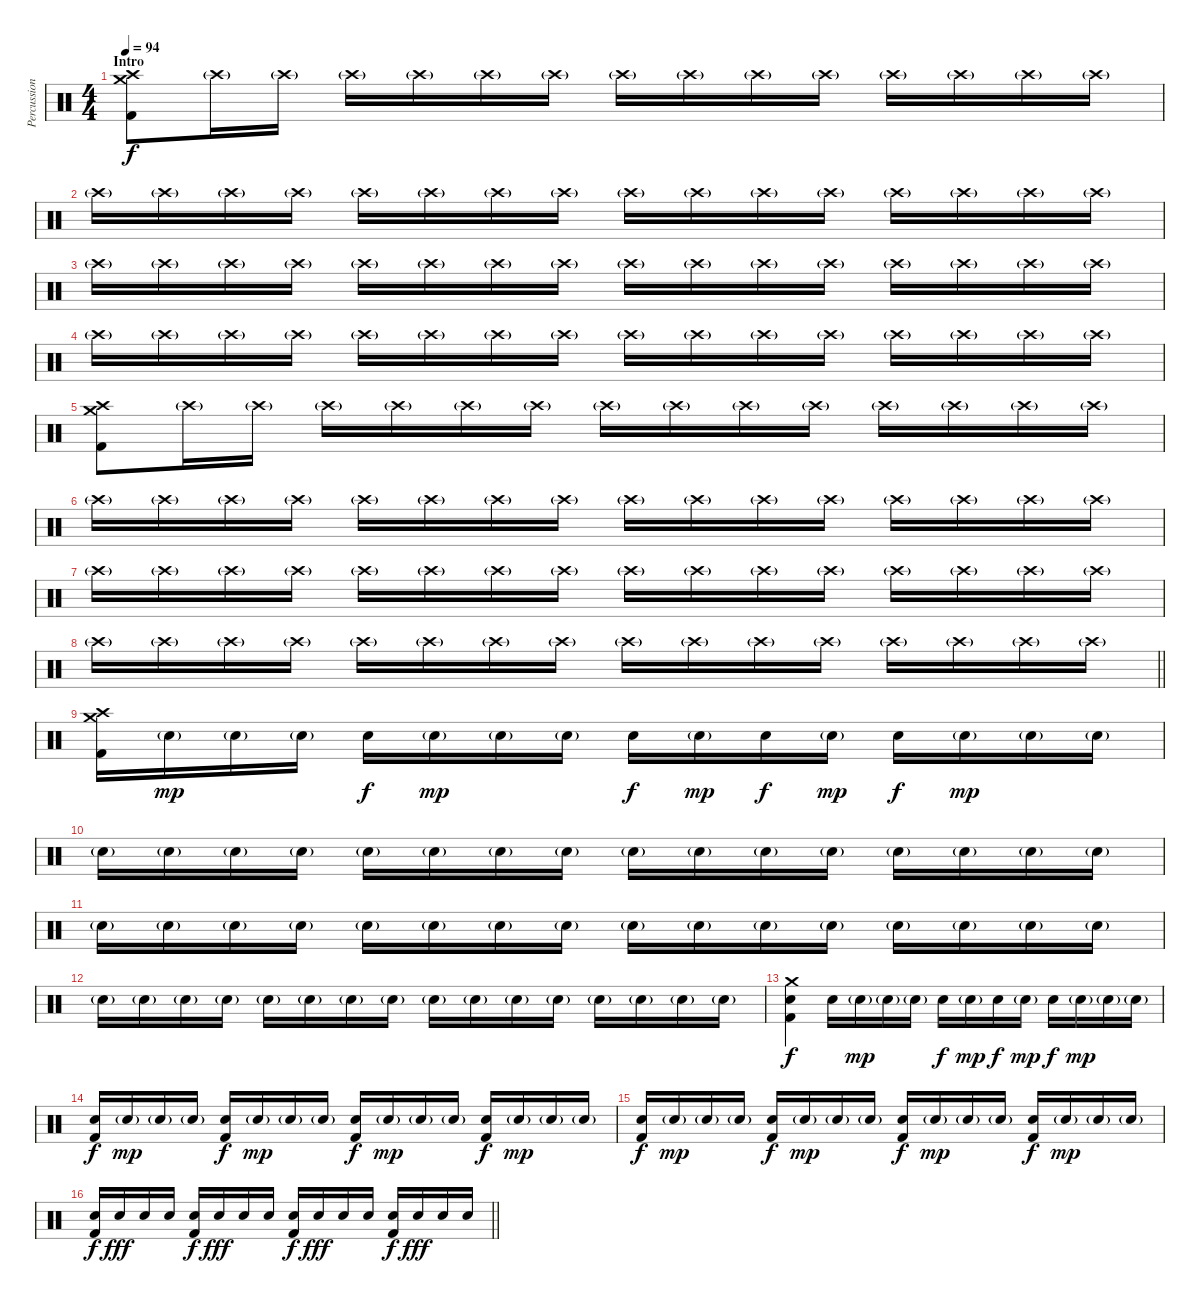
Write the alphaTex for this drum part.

\track ("Percussion" "Percussion") {instrument percussion}
\staff {score}
\articulation defaults
\ts (4 4)
\section ("" "Intro")
\tempo 94
\tempo 149
\tempo 94
\clef neutral
\ks c
("Crash high (hit)" "Crash medium (hit)" "Kick (hit) 2").8{dy f} "Crash high (hit)"{g}.16 "Crash high (hit)"{g}.16 "Crash high (hit)"{g}.16 "Crash high (hit)"{g}.16 "Crash high (hit)"{g}.16 "Crash high (hit)"{g}.16 "Crash high (hit)"{g}.16 "Crash high (hit)"{g}.16 "Crash high (hit)"{g}.16 "Crash high (hit)"{g}.16 "Crash high (hit)"{g}.16 "Crash high (hit)"{g}.16 "Crash high (hit)"{g}.16 "Crash high (hit)"{g}.16 |
"Crash high (hit)"{g}.16 "Crash high (hit)"{g}.16 "Crash high (hit)"{g}.16 "Crash high (hit)"{g}.16 "Crash high (hit)"{g}.16 "Crash high (hit)"{g}.16 "Crash high (hit)"{g}.16 "Crash high (hit)"{g}.16 "Crash high (hit)"{g}.16 "Crash high (hit)"{g}.16 "Crash high (hit)"{g}.16 "Crash high (hit)"{g}.16 "Crash high (hit)"{g}.16 "Crash high (hit)"{g}.16 "Crash high (hit)"{g}.16 "Crash high (hit)"{g}.16 |
"Crash high (hit)"{g}.16 "Crash high (hit)"{g}.16 "Crash high (hit)"{g}.16 "Crash high (hit)"{g}.16 "Crash high (hit)"{g}.16 "Crash high (hit)"{g}.16 "Crash high (hit)"{g}.16 "Crash high (hit)"{g}.16 "Crash high (hit)"{g}.16 "Crash high (hit)"{g}.16 "Crash high (hit)"{g}.16 "Crash high (hit)"{g}.16 "Crash high (hit)"{g}.16 "Crash high (hit)"{g}.16 "Crash high (hit)"{g}.16 "Crash high (hit)"{g}.16 |
"Crash high (hit)"{g}.16 "Crash high (hit)"{g}.16 "Crash high (hit)"{g}.16 "Crash high (hit)"{g}.16 "Crash high (hit)"{g}.16 "Crash high (hit)"{g}.16 "Crash high (hit)"{g}.16 "Crash high (hit)"{g}.16 "Crash high (hit)"{g}.16 "Crash high (hit)"{g}.16 "Crash high (hit)"{g}.16 "Crash high (hit)"{g}.16 "Crash high (hit)"{g}.16 "Crash high (hit)"{g}.16 "Crash high (hit)"{g}.16 "Crash high (hit)"{g}.16 |
("Crash high (hit)" "Crash medium (hit)" "Kick (hit) 2").8 "Crash high (hit)"{g}.16 "Crash high (hit)"{g}.16 "Crash high (hit)"{g}.16 "Crash high (hit)"{g}.16 "Crash high (hit)"{g}.16 "Crash high (hit)"{g}.16 "Crash high (hit)"{g}.16 "Crash high (hit)"{g}.16 "Crash high (hit)"{g}.16 "Crash high (hit)"{g}.16 "Crash high (hit)"{g}.16 "Crash high (hit)"{g}.16 "Crash high (hit)"{g}.16 "Crash high (hit)"{g}.16 |
"Crash high (hit)"{g}.16 "Crash high (hit)"{g}.16 "Crash high (hit)"{g}.16 "Crash high (hit)"{g}.16 "Crash high (hit)"{g}.16 "Crash high (hit)"{g}.16 "Crash high (hit)"{g}.16 "Crash high (hit)"{g}.16 "Crash high (hit)"{g}.16 "Crash high (hit)"{g}.16 "Crash high (hit)"{g}.16 "Crash high (hit)"{g}.16 "Crash high (hit)"{g}.16 "Crash high (hit)"{g}.16 "Crash high (hit)"{g}.16 "Crash high (hit)"{g}.16 |
"Crash high (hit)"{g}.16 "Crash high (hit)"{g}.16 "Crash high (hit)"{g}.16 "Crash high (hit)"{g}.16 "Crash high (hit)"{g}.16 "Crash high (hit)"{g}.16 "Crash high (hit)"{g}.16 "Crash high (hit)"{g}.16 "Crash high (hit)"{g}.16 "Crash high (hit)"{g}.16 "Crash high (hit)"{g}.16 "Crash high (hit)"{g}.16 "Crash high (hit)"{g}.16 "Crash high (hit)"{g}.16 "Crash high (hit)"{g}.16 "Crash high (hit)"{g}.16 |
\barLineRight lightlight "Crash high (hit)"{g}.16 "Crash high (hit)"{g}.16 "Crash high (hit)"{g}.16 "Crash high (hit)"{g}.16 "Crash high (hit)"{g}.16 "Crash high (hit)"{g}.16 "Crash high (hit)"{g}.16 "Crash high (hit)"{g}.16 "Crash high (hit)"{g}.16 "Crash high (hit)"{g}.16 "Crash high (hit)"{g}.16 "Crash high (hit)"{g}.16 "Crash high (hit)"{g}.16 "Crash high (hit)"{g}.16 "Crash high (hit)"{g}.16 "Crash high (hit)"{g}.16
|
("Crash high (hit)" "Crash medium (hit)" "Kick (hit) 2").16 "Electric Snare (hit)"{g}.16{dy mp} "Electric Snare (hit)"{g}.16 "Electric Snare (hit)"{g}.16 "Electric Snare (hit)".16{dy f} "Electric Snare (hit)"{g}.16{dy mp} "Electric Snare (hit)"{g}.16 "Electric Snare (hit)"{g}.16 "Electric Snare (hit)".16{dy f} "Electric Snare (hit)"{g}.16{dy mp} "Electric Snare (hit)".16{dy f} "Electric Snare (hit)"{g}.16{dy mp} "Electric Snare (hit)".16{dy f} "Electric Snare (hit)"{g}.16{dy mp} "Electric Snare (hit)"{g}.16 "Electric Snare (hit)"{g}.16 |
"Electric Snare (hit)"{g}.16 "Electric Snare (hit)"{g}.16 "Electric Snare (hit)"{g}.16 "Electric Snare (hit)"{g}.16 "Electric Snare (hit)"{g}.16 "Electric Snare (hit)"{g}.16 "Electric Snare (hit)"{g}.16 "Electric Snare (hit)"{g}.16 "Electric Snare (hit)"{g}.16 "Electric Snare (hit)"{g}.16 "Electric Snare (hit)"{g}.16 "Electric Snare (hit)"{g}.16 "Electric Snare (hit)"{g}.16 "Electric Snare (hit)"{g}.16 "Electric Snare (hit)"{g}.16 "Electric Snare (hit)"{g}.16 |
"Electric Snare (hit)"{g}.16 "Electric Snare (hit)"{g}.16 "Electric Snare (hit)"{g}.16 "Electric Snare (hit)"{g}.16 "Electric Snare (hit)"{g}.16 "Electric Snare (hit)"{g}.16 "Electric Snare (hit)"{g}.16 "Electric Snare (hit)"{g}.16 "Electric Snare (hit)"{g}.16 "Electric Snare (hit)"{g}.16 "Electric Snare (hit)"{g}.16 "Electric Snare (hit)"{g}.16 "Electric Snare (hit)"{g}.16 "Electric Snare (hit)"{g}.16 "Electric Snare (hit)"{g}.16 "Electric Snare (hit)"{g}.16 |
"Electric Snare (hit)"{g}.16 "Electric Snare (hit)"{g}.16 "Electric Snare (hit)"{g}.16 "Electric Snare (hit)"{g}.16 "Electric Snare (hit)"{g}.16 "Electric Snare (hit)"{g}.16 "Electric Snare (hit)"{g}.16 "Electric Snare (hit)"{g}.16 "Electric Snare (hit)"{g}.16 "Electric Snare (hit)"{g}.16 "Electric Snare (hit)"{g}.16 "Electric Snare (hit)"{g}.16 "Electric Snare (hit)"{g}.16 "Electric Snare (hit)"{g}.16 "Electric Snare (hit)"{g}.16 "Electric Snare (hit)"{g}.16 |
("Crash medium (hit)" "Electric Snare (hit)" "Kick (hit) 2").4{dy f} "Electric Snare (hit)".16 "Electric Snare (hit)"{g}.16{dy mp} "Electric Snare (hit)"{g}.16 "Electric Snare (hit)"{g}.16 "Electric Snare (hit)".16{dy f} "Electric Snare (hit)"{g}.16{dy mp} "Electric Snare (hit)".16{dy f} "Electric Snare (hit)"{g}.16{dy mp} "Electric Snare (hit)".16{dy f} "Electric Snare (hit)"{g}.16{dy mp} "Electric Snare (hit)"{g}.16 "Electric Snare (hit)"{g}.16 |
("Electric Snare (hit)" "Kick (hit) 2").16{dy f} "Electric Snare (hit)"{g}.16{dy mp} "Electric Snare (hit)"{g}.16 "Electric Snare (hit)"{g}.16 ("Electric Snare (hit)" "Kick (hit) 2").16{dy f} "Electric Snare (hit)"{g}.16{dy mp} "Electric Snare (hit)"{g}.16 "Electric Snare (hit)"{g}.16 ("Electric Snare (hit)" "Kick (hit) 2").16{dy f} "Electric Snare (hit)"{g}.16{dy mp} "Electric Snare (hit)"{g}.16 "Electric Snare (hit)"{g}.16 ("Electric Snare (hit)" "Kick (hit) 2").16{dy f} "Electric Snare (hit)"{g}.16{dy mp} "Electric Snare (hit)"{g}.16 "Electric Snare (hit)"{g}.16 |
("Electric Snare (hit)" "Kick (hit) 2").16{dy f} "Electric Snare (hit)"{g}.16{dy mp} "Electric Snare (hit)"{g}.16 "Electric Snare (hit)"{g}.16 ("Electric Snare (hit)" "Kick (hit) 2").16{dy f} "Electric Snare (hit)"{g}.16{dy mp} "Electric Snare (hit)"{g}.16 "Electric Snare (hit)"{g}.16 ("Electric Snare (hit)" "Kick (hit) 2").16{dy f} "Electric Snare (hit)"{g}.16{dy mp} "Electric Snare (hit)"{g}.16 "Electric Snare (hit)"{g}.16 ("Electric Snare (hit)" "Kick (hit) 2").16{dy f} "Electric Snare (hit)"{g}.16{dy mp} "Electric Snare (hit)"{g}.16 "Electric Snare (hit)"{g}.16 |
\barLineRight lightlight
("Electric Snare (hit)" "Kick (hit) 2").16{dy f} "Electric Snare (hit)".16{dy fff} "Electric Snare (hit)".16 "Electric Snare (hit)".16 ("Electric Snare (hit)" "Kick (hit) 2").16{dy f} "Electric Snare (hit)".16{dy fff} "Electric Snare (hit)".16 "Electric Snare (hit)".16 ("Electric Snare (hit)" "Kick (hit) 2").16{dy f} "Electric Snare (hit)".16{dy fff} "Electric Snare (hit)".16 "Electric Snare (hit)".16 ("Electric Snare (hit)" "Kick (hit) 2").16{dy f} "Electric Snare (hit)".16{dy fff} "Electric Snare (hit)".16 "Electric Snare (hit)".16
